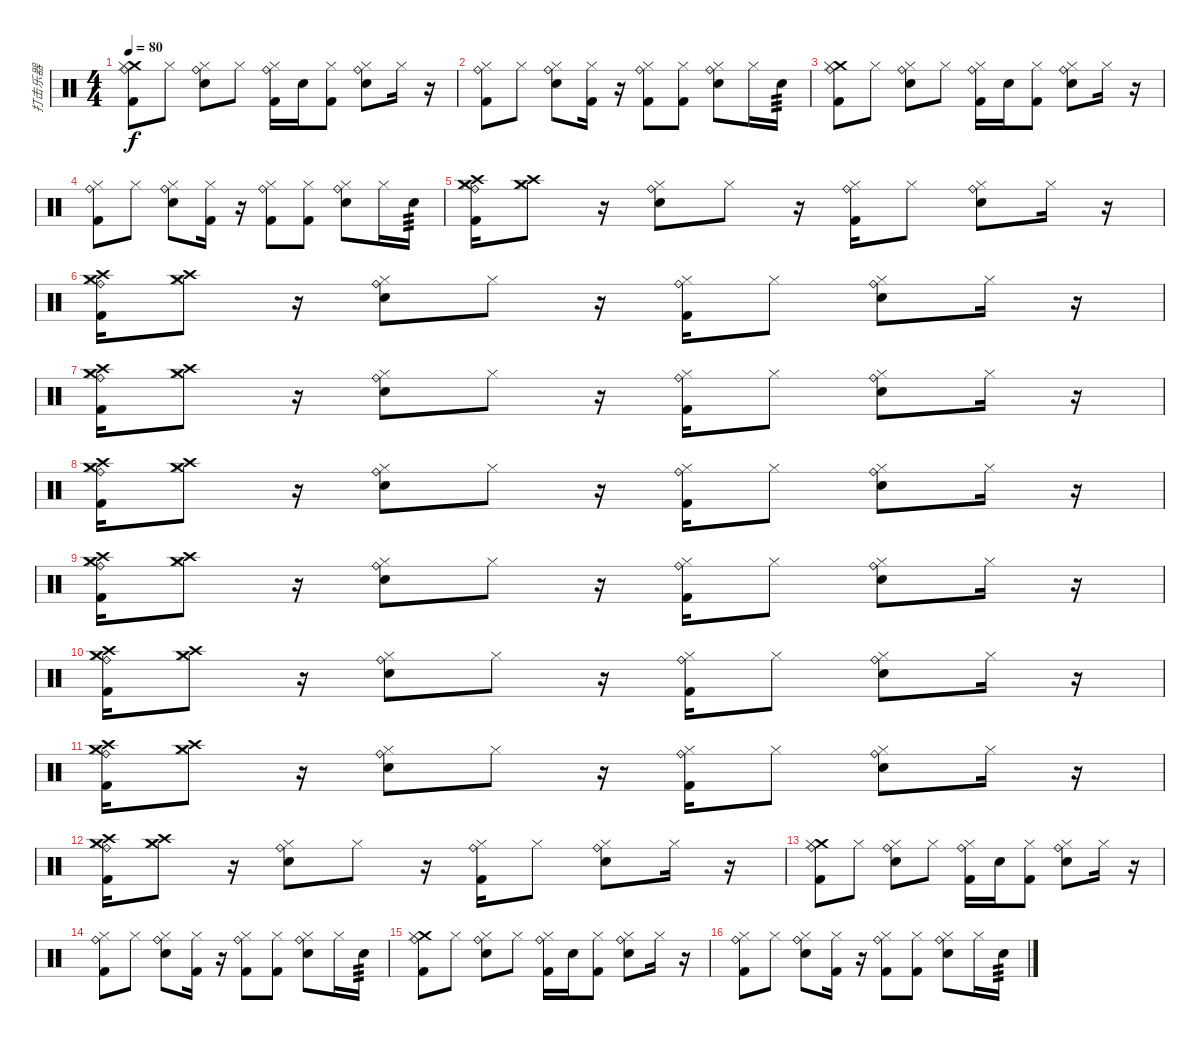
\track ("打击乐器" "打击乐器") {instrument percussion}
\staff {score}
\articulation defaults
\ts (4 4)
\tempo 80
\clef neutral
\ks c
("Crash medium (hit)" "Ride (bell)" "Hi-Hat (closed)" "Kick (hit) 2").8{dy f} "Hi-Hat (closed)".8 ("Ride (bell)" "Hi-Hat (closed)" "Electric Snare (hit)").8 "Hi-Hat (closed)".8 ("Ride (bell)" "Hi-Hat (closed)" "Kick (hit) 2").16 "Electric Snare (hit)".16 ("Hi-Hat (closed)" "Kick (hit) 2").8 ("Ride (bell)" "Hi-Hat (closed)" "Electric Snare (hit)").8 "Hi-Hat (closed)".16 r.16 |
("Ride (bell)" "Hi-Hat (closed)" "Kick (hit) 2").8 "Hi-Hat (closed)".8 ("Ride (bell)" "Hi-Hat (closed)" "Electric Snare (hit)").8 ("Hi-Hat (closed)" "Kick (hit) 2").16 r.16 ("Ride (bell)" "Hi-Hat (closed)" "Kick (hit) 2").8 ("Hi-Hat (closed)" "Kick (hit) 2").8 ("Ride (bell)" "Hi-Hat (closed)" "Electric Snare (hit)").8 "Hi-Hat (closed)".16 "Electric Snare (hit)".16{tp 3} |
("Crash medium (hit)" "Ride (bell)" "Hi-Hat (closed)" "Kick (hit) 2").8 "Hi-Hat (closed)".8 ("Ride (bell)" "Hi-Hat (closed)" "Electric Snare (hit)").8 "Hi-Hat (closed)".8 ("Ride (bell)" "Hi-Hat (closed)" "Kick (hit) 2").16 "Electric Snare (hit)".16 ("Hi-Hat (closed)" "Kick (hit) 2").8 ("Ride (bell)" "Hi-Hat (closed)" "Electric Snare (hit)").8 "Hi-Hat (closed)".16 r.16 |
("Ride (bell)" "Hi-Hat (closed)" "Kick (hit) 2").8 "Hi-Hat (closed)".8 ("Ride (bell)" "Hi-Hat (closed)" "Electric Snare (hit)").8 ("Hi-Hat (closed)" "Kick (hit) 2").16 r.16 ("Ride (bell)" "Hi-Hat (closed)" "Kick (hit) 2").8 ("Hi-Hat (closed)" "Kick (hit) 2").8 ("Ride (bell)" "Hi-Hat (closed)" "Electric Snare (hit)").8 "Hi-Hat (closed)".16 "Electric Snare (hit)".16{tp 3} |
("Crash medium (hit)" "Crash high (hit)" "Ride (bell)" "Hi-Hat (closed)" "Kick (hit) 2").16 ("Crash high (hit)" "Crash medium (hit)" "Hi-Hat (closed)").8 r.16 ("Ride (bell)" "Hi-Hat (closed)" "Electric Snare (hit)").8 "Hi-Hat (closed)".8 r.16 ("Ride (bell)" "Hi-Hat (closed)" "Kick (hit) 2").16 "Hi-Hat (closed)".8 ("Ride (bell)" "Hi-Hat (closed)" "Electric Snare (hit)").8 "Hi-Hat (closed)".16 r.16 |
("Crash medium (hit)" "Crash high (hit)" "Ride (bell)" "Hi-Hat (closed)" "Kick (hit) 2").16 ("Crash high (hit)" "Crash medium (hit)" "Hi-Hat (closed)").8 r.16 ("Ride (bell)" "Hi-Hat (closed)" "Electric Snare (hit)").8 "Hi-Hat (closed)".8 r.16 ("Ride (bell)" "Hi-Hat (closed)" "Kick (hit) 2").16 "Hi-Hat (closed)".8 ("Ride (bell)" "Hi-Hat (closed)" "Electric Snare (hit)").8 "Hi-Hat (closed)".16 r.16 |
("Crash medium (hit)" "Crash high (hit)" "Ride (bell)" "Hi-Hat (closed)" "Kick (hit) 2").16 ("Crash high (hit)" "Crash medium (hit)" "Hi-Hat (closed)").8 r.16 ("Ride (bell)" "Hi-Hat (closed)" "Electric Snare (hit)").8 "Hi-Hat (closed)".8 r.16 ("Ride (bell)" "Hi-Hat (closed)" "Kick (hit) 2").16 "Hi-Hat (closed)".8 ("Ride (bell)" "Hi-Hat (closed)" "Electric Snare (hit)").8 "Hi-Hat (closed)".16 r.16 |
("Crash medium (hit)" "Crash high (hit)" "Ride (bell)" "Hi-Hat (closed)" "Kick (hit) 2").16 ("Crash high (hit)" "Crash medium (hit)" "Hi-Hat (closed)").8 r.16 ("Ride (bell)" "Hi-Hat (closed)" "Electric Snare (hit)").8 "Hi-Hat (closed)".8 r.16 ("Ride (bell)" "Hi-Hat (closed)" "Kick (hit) 2").16 "Hi-Hat (closed)".8 ("Ride (bell)" "Hi-Hat (closed)" "Electric Snare (hit)").8 "Hi-Hat (closed)".16 r.16 |
("Crash medium (hit)" "Crash high (hit)" "Ride (bell)" "Hi-Hat (closed)" "Kick (hit) 2").16 ("Crash high (hit)" "Crash medium (hit)" "Hi-Hat (closed)").8 r.16 ("Ride (bell)" "Hi-Hat (closed)" "Electric Snare (hit)").8 "Hi-Hat (closed)".8 r.16 ("Ride (bell)" "Hi-Hat (closed)" "Kick (hit) 2").16 "Hi-Hat (closed)".8 ("Ride (bell)" "Hi-Hat (closed)" "Electric Snare (hit)").8 "Hi-Hat (closed)".16 r.16 |
("Crash medium (hit)" "Crash high (hit)" "Ride (bell)" "Hi-Hat (closed)" "Kick (hit) 2").16 ("Crash high (hit)" "Crash medium (hit)" "Hi-Hat (closed)").8 r.16 ("Ride (bell)" "Hi-Hat (closed)" "Electric Snare (hit)").8 "Hi-Hat (closed)".8 r.16 ("Ride (bell)" "Hi-Hat (closed)" "Kick (hit) 2").16 "Hi-Hat (closed)".8 ("Ride (bell)" "Hi-Hat (closed)" "Electric Snare (hit)").8 "Hi-Hat (closed)".16 r.16 |
("Crash medium (hit)" "Crash high (hit)" "Ride (bell)" "Hi-Hat (closed)" "Kick (hit) 2").16 ("Crash high (hit)" "Crash medium (hit)" "Hi-Hat (closed)").8 r.16 ("Ride (bell)" "Hi-Hat (closed)" "Electric Snare (hit)").8 "Hi-Hat (closed)".8 r.16 ("Ride (bell)" "Hi-Hat (closed)" "Kick (hit) 2").16 "Hi-Hat (closed)".8 ("Ride (bell)" "Hi-Hat (closed)" "Electric Snare (hit)").8 "Hi-Hat (closed)".16 r.16 |
("Crash medium (hit)" "Crash high (hit)" "Ride (bell)" "Hi-Hat (closed)" "Kick (hit) 2").16 ("Crash high (hit)" "Crash medium (hit)" "Hi-Hat (closed)").8 r.16 ("Ride (bell)" "Hi-Hat (closed)" "Electric Snare (hit)").8 "Hi-Hat (closed)".8 r.16 ("Ride (bell)" "Hi-Hat (closed)" "Kick (hit) 2").16 "Hi-Hat (closed)".8 ("Ride (bell)" "Hi-Hat (closed)" "Electric Snare (hit)").8 "Hi-Hat (closed)".16 r.16 |
("Crash medium (hit)" "Ride (bell)" "Hi-Hat (closed)" "Kick (hit) 2").8 "Hi-Hat (closed)".8 ("Ride (bell)" "Hi-Hat (closed)" "Electric Snare (hit)").8 "Hi-Hat (closed)".8 ("Ride (bell)" "Hi-Hat (closed)" "Kick (hit) 2").16 "Electric Snare (hit)".16 ("Hi-Hat (closed)" "Kick (hit) 2").8 ("Ride (bell)" "Hi-Hat (closed)" "Electric Snare (hit)").8 "Hi-Hat (closed)".16 r.16 |
("Ride (bell)" "Hi-Hat (closed)" "Kick (hit) 2").8 "Hi-Hat (closed)".8 ("Ride (bell)" "Hi-Hat (closed)" "Electric Snare (hit)").8 ("Hi-Hat (closed)" "Kick (hit) 2").16 r.16 ("Ride (bell)" "Hi-Hat (closed)" "Kick (hit) 2").8 ("Hi-Hat (closed)" "Kick (hit) 2").8 ("Ride (bell)" "Hi-Hat (closed)" "Electric Snare (hit)").8 "Hi-Hat (closed)".16 "Electric Snare (hit)".16{tp 3} |
("Crash medium (hit)" "Ride (bell)" "Hi-Hat (closed)" "Kick (hit) 2").8 "Hi-Hat (closed)".8 ("Ride (bell)" "Hi-Hat (closed)" "Electric Snare (hit)").8 "Hi-Hat (closed)".8 ("Ride (bell)" "Hi-Hat (closed)" "Kick (hit) 2").16 "Electric Snare (hit)".16 ("Hi-Hat (closed)" "Kick (hit) 2").8 ("Ride (bell)" "Hi-Hat (closed)" "Electric Snare (hit)").8 "Hi-Hat (closed)".16 r.16 |
("Ride (bell)" "Hi-Hat (closed)" "Kick (hit) 2").8 "Hi-Hat (closed)".8 ("Ride (bell)" "Hi-Hat (closed)" "Electric Snare (hit)").8 ("Hi-Hat (closed)" "Kick (hit) 2").16 r.16 ("Ride (bell)" "Hi-Hat (closed)" "Kick (hit) 2").8 ("Hi-Hat (closed)" "Kick (hit) 2").8 ("Ride (bell)" "Hi-Hat (closed)" "Electric Snare (hit)").8 "Hi-Hat (closed)".16 "Electric Snare (hit)".16{tp 3}
